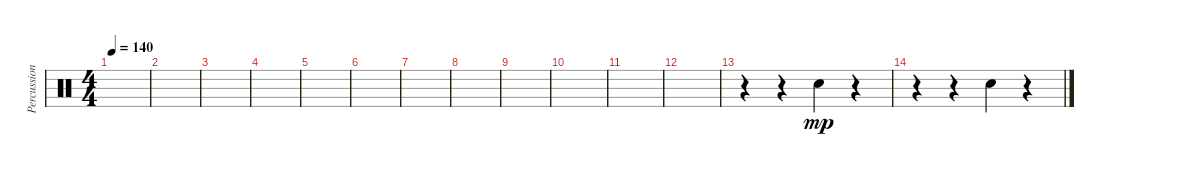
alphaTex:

\track ("Percussions" "Percussion") {instrument percussion}
\staff {score}
\articulation defaults
\ts (4 4)
\tempo 140
\clef neutral
\ks c
|
|
|
|
|
|
|
|
|
|
|
|
r.4 r.4 "Hand Clap (hit)".4{dy mp} r.4 |
r.4 r.4 "Hand Clap (hit)".4 r.4
